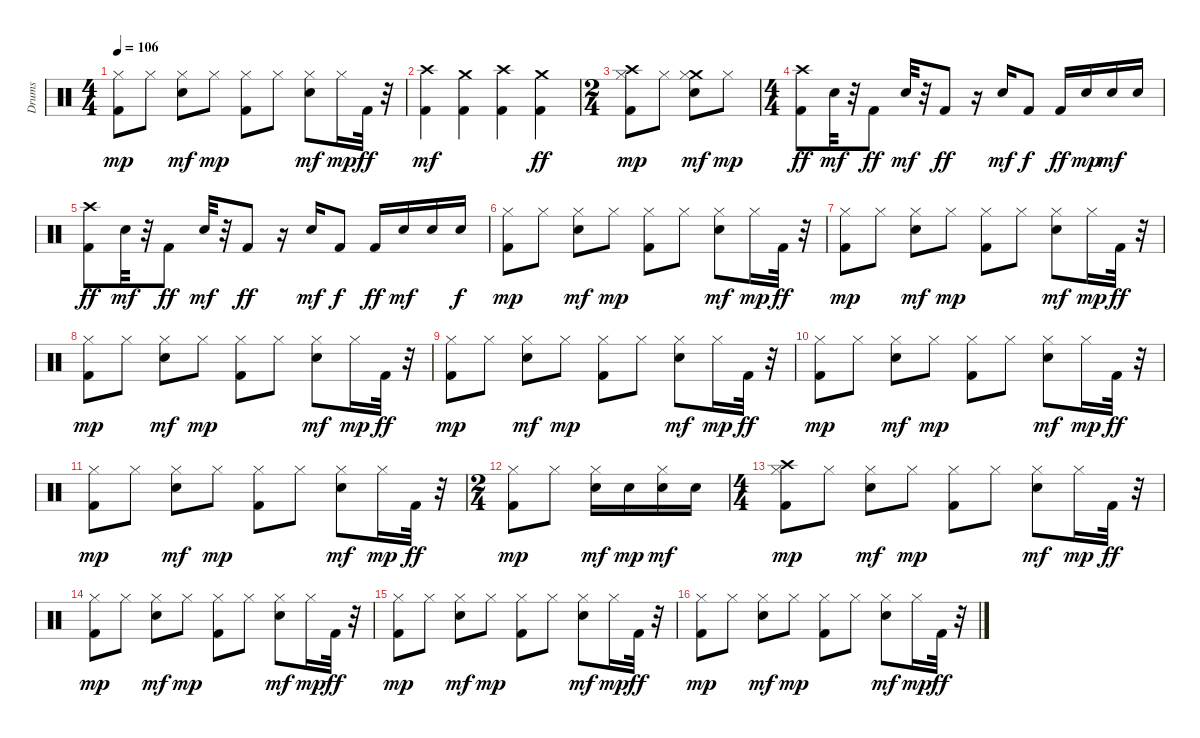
\track ("Drums" "Drums") {instrument percussion}
\staff {score}
\articulation defaults
\ts (4 4)
\tempo 106
\clef neutral
\ks c
("Kick (hit) 2" "Hi-Hat (closed)").8{dy mp} "Hi-Hat (closed)".8 ("Hi-Hat (closed)" "Snare (hit) 2").8{dy mf} "Hi-Hat (closed)".8{dy mp} ("Hi-Hat (closed)" "Kick (hit) 2").8 "Hi-Hat (closed)".8 ("Hi-Hat (closed)" "Snare (hit) 2").8{dy mf} "Hi-Hat (closed)".16{dy mp} "Kick (hit) 2".32{dy ff} r.32 |
("Crash high (hit)" "Kick (hit) 2").4{dy mf} ("Kick (hit) 2" "Crash medium (hit)").4 ("Kick (hit) 2" "Crash high (hit)").4 ("Kick (hit) 2" "Crash medium (hit)").4{dy ff} |
\ts (2 4)
("Crash high (hit)" "Kick (hit) 2" "Hi-Hat (closed)").8{dy mp} "Hi-Hat (closed)".8 ("Crash medium (hit)" "Hi-Hat (closed)" "Snare (hit) 2").8{dy mf} "Hi-Hat (closed)".8{dy mp} |
\ts (4 4)
("Crash high (hit)" "Kick (hit) 2").8{dy ff} "Snare (hit) 2".32{dy mf} r.32 "Kick (hit) 2".8{dy ff} "Snare (hit) 2".32{dy mf} r.32 "Kick (hit) 2".8{dy ff} r.16 "Snare (hit) 2".16{dy mf} "Kick (hit) 2".8{dy f} "Kick (hit) 2".16{dy ff} "Snare (hit) 2".16{dy mp} "Snare (hit) 2".16{dy mf} "Snare (hit) 2".16 |
("Crash high (hit)" "Kick (hit) 2").8{dy ff} "Snare (hit) 2".32{dy mf} r.32 "Kick (hit) 2".8{dy ff} "Snare (hit) 2".32{dy mf} r.32 "Kick (hit) 2".8{dy ff} r.16 "Snare (hit) 2".16{dy mf} "Kick (hit) 2".8{dy f} "Kick (hit) 2".16{dy ff} "Snare (hit) 2".16{dy mf} "Snare (hit) 2".16 "Snare (hit) 2".16{dy f} |
("Kick (hit) 2" "Hi-Hat (closed)").8{dy mp} "Hi-Hat (closed)".8 ("Hi-Hat (closed)" "Snare (hit) 2").8{dy mf} "Hi-Hat (closed)".8{dy mp} ("Hi-Hat (closed)" "Kick (hit) 2").8 "Hi-Hat (closed)".8 ("Hi-Hat (closed)" "Snare (hit) 2").8{dy mf} "Hi-Hat (closed)".16{dy mp} "Kick (hit) 2".32{dy ff} r.32 |
("Kick (hit) 2" "Hi-Hat (closed)").8{dy mp} "Hi-Hat (closed)".8 ("Hi-Hat (closed)" "Snare (hit) 2").8{dy mf} "Hi-Hat (closed)".8{dy mp} ("Hi-Hat (closed)" "Kick (hit) 2").8 "Hi-Hat (closed)".8 ("Hi-Hat (closed)" "Snare (hit) 2").8{dy mf} "Hi-Hat (closed)".16{dy mp} "Kick (hit) 2".32{dy ff} r.32 |
("Kick (hit) 2" "Hi-Hat (closed)").8{dy mp} "Hi-Hat (closed)".8 ("Hi-Hat (closed)" "Snare (hit) 2").8{dy mf} "Hi-Hat (closed)".8{dy mp} ("Hi-Hat (closed)" "Kick (hit) 2").8 "Hi-Hat (closed)".8 ("Hi-Hat (closed)" "Snare (hit) 2").8{dy mf} "Hi-Hat (closed)".16{dy mp} "Kick (hit) 2".32{dy ff} r.32 |
("Kick (hit) 2" "Hi-Hat (closed)").8{dy mp} "Hi-Hat (closed)".8 ("Hi-Hat (closed)" "Snare (hit) 2").8{dy mf} "Hi-Hat (closed)".8{dy mp} ("Hi-Hat (closed)" "Kick (hit) 2").8 "Hi-Hat (closed)".8 ("Hi-Hat (closed)" "Snare (hit) 2").8{dy mf} "Hi-Hat (closed)".16{dy mp} "Kick (hit) 2".32{dy ff} r.32 |
("Kick (hit) 2" "Hi-Hat (closed)").8{dy mp} "Hi-Hat (closed)".8 ("Hi-Hat (closed)" "Snare (hit) 2").8{dy mf} "Hi-Hat (closed)".8{dy mp} ("Hi-Hat (closed)" "Kick (hit) 2").8 "Hi-Hat (closed)".8 ("Hi-Hat (closed)" "Snare (hit) 2").8{dy mf} "Hi-Hat (closed)".16{dy mp} "Kick (hit) 2".32{dy ff} r.32 |
("Kick (hit) 2" "Hi-Hat (closed)").8{dy mp} "Hi-Hat (closed)".8 ("Hi-Hat (closed)" "Snare (hit) 2").8{dy mf} "Hi-Hat (closed)".8{dy mp} ("Hi-Hat (closed)" "Kick (hit) 2").8 "Hi-Hat (closed)".8 ("Hi-Hat (closed)" "Snare (hit) 2").8{dy mf} "Hi-Hat (closed)".16{dy mp} "Kick (hit) 2".32{dy ff} r.32 |
\ts (2 4)
("Kick (hit) 2" "Hi-Hat (closed)").8{dy mp} "Hi-Hat (closed)".8 ("Hi-Hat (closed)" "Snare (hit) 2").16{dy mf} "Snare (hit) 2".16{dy mp} ("Snare (hit) 2" "Hi-Hat (closed)").16{dy mf} "Snare (hit) 2".16 |
\ts (4 4)
("Crash high (hit)" "Kick (hit) 2" "Hi-Hat (closed)").8{dy mp} "Hi-Hat (closed)".8 ("Hi-Hat (closed)" "Snare (hit) 2").8{dy mf} "Hi-Hat (closed)".8{dy mp} ("Hi-Hat (closed)" "Kick (hit) 2").8 "Hi-Hat (closed)".8 ("Hi-Hat (closed)" "Snare (hit) 2").8{dy mf} "Hi-Hat (closed)".16{dy mp} "Kick (hit) 2".32{dy ff} r.32 |
("Kick (hit) 2" "Hi-Hat (closed)").8{dy mp} "Hi-Hat (closed)".8 ("Hi-Hat (closed)" "Snare (hit) 2").8{dy mf} "Hi-Hat (closed)".8{dy mp} ("Hi-Hat (closed)" "Kick (hit) 2").8 "Hi-Hat (closed)".8 ("Hi-Hat (closed)" "Snare (hit) 2").8{dy mf} "Hi-Hat (closed)".16{dy mp} "Kick (hit) 2".32{dy ff} r.32 |
("Kick (hit) 2" "Hi-Hat (closed)").8{dy mp} "Hi-Hat (closed)".8 ("Hi-Hat (closed)" "Snare (hit) 2").8{dy mf} "Hi-Hat (closed)".8{dy mp} ("Hi-Hat (closed)" "Kick (hit) 2").8 "Hi-Hat (closed)".8 ("Hi-Hat (closed)" "Snare (hit) 2").8{dy mf} "Hi-Hat (closed)".16{dy mp} "Kick (hit) 2".32{dy ff} r.32 |
("Kick (hit) 2" "Hi-Hat (closed)").8{dy mp} "Hi-Hat (closed)".8 ("Hi-Hat (closed)" "Snare (hit) 2").8{dy mf} "Hi-Hat (closed)".8{dy mp} ("Hi-Hat (closed)" "Kick (hit) 2").8 "Hi-Hat (closed)".8 ("Hi-Hat (closed)" "Snare (hit) 2").8{dy mf} "Hi-Hat (closed)".16{dy mp} "Kick (hit) 2".32{dy ff} r.32
